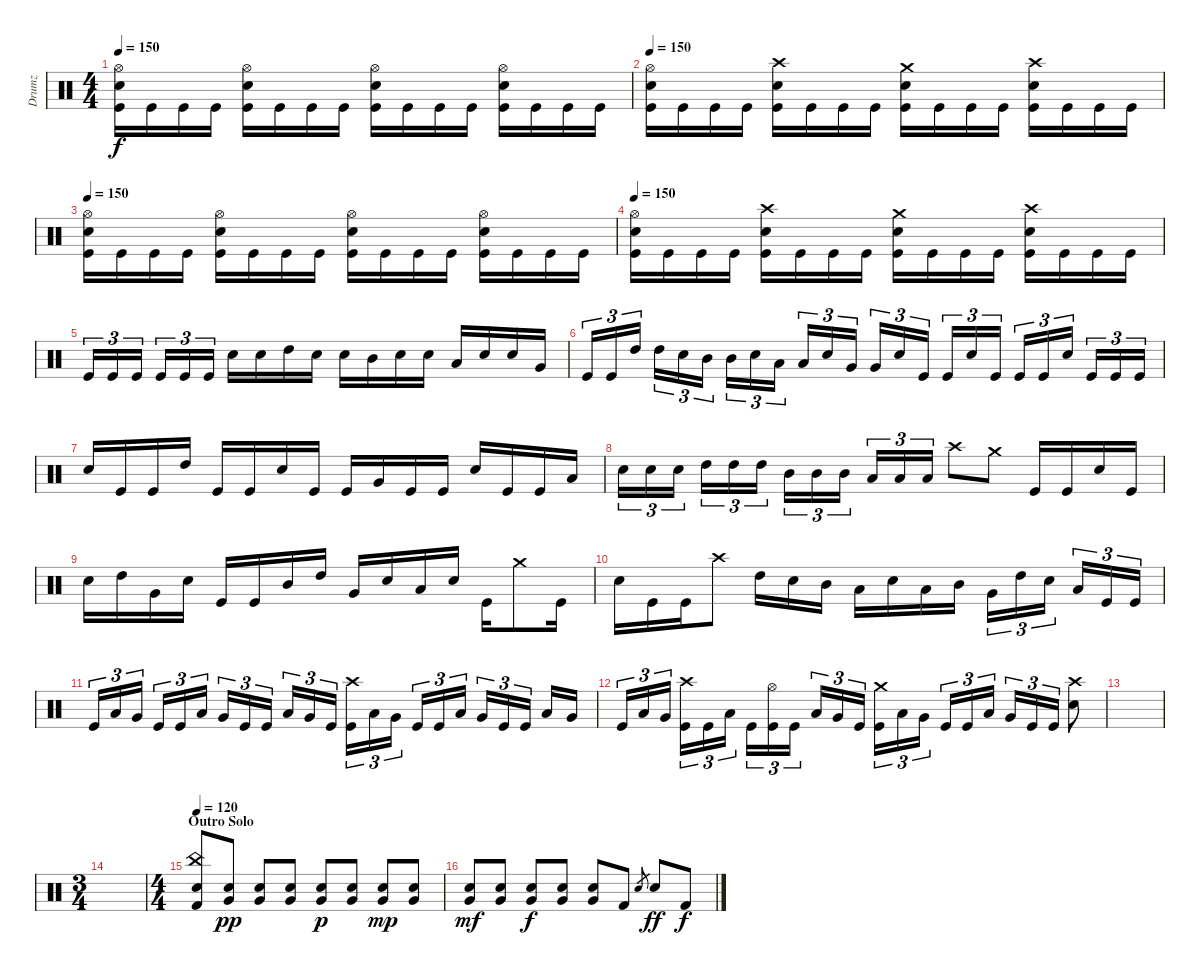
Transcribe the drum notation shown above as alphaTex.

\track ("Drumz" "Drumz") {instrument percussion}
\staff {score}
\articulation defaults
\ts (4 4)
\tempo 150
\clef neutral
\ks c
("Hi-Hat (open)" "Snare (hit) 2" "Kick (hit)").16{dy f} "Kick (hit)".16 "Kick (hit)".16 "Kick (hit)".16 ("Hi-Hat (open)" "Snare (hit) 2" "Kick (hit)").16 "Kick (hit)".16 "Kick (hit)".16 "Kick (hit)".16 ("Hi-Hat (open)" "Snare (hit) 2" "Kick (hit)").16 "Kick (hit)".16 "Kick (hit)".16 "Kick (hit)".16 ("Hi-Hat (open)" "Snare (hit) 2" "Kick (hit)").16 "Kick (hit)".16 "Kick (hit)".16 "Kick (hit)".16 |
\tempo 150
("Hi-Hat (open)" "Snare (hit) 2" "Kick (hit)").16 "Kick (hit)".16 "Kick (hit)".16 "Kick (hit)".16 ("Crash high (hit)" "Snare (hit) 2" "Kick (hit)").16 "Kick (hit)".16 "Kick (hit)".16 "Kick (hit)".16 ("Crash medium (hit)" "Snare (hit) 2" "Kick (hit)").16 "Kick (hit)".16 "Kick (hit)".16 "Kick (hit)".16 ("Crash high (hit)" "Snare (hit) 2" "Kick (hit)").16 "Kick (hit)".16 "Kick (hit)".16 "Kick (hit)".16 |
\tempo 150
("Hi-Hat (open)" "Snare (hit) 2" "Kick (hit)").16 "Kick (hit)".16 "Kick (hit)".16 "Kick (hit)".16 ("Hi-Hat (open)" "Snare (hit) 2" "Kick (hit)").16 "Kick (hit)".16 "Kick (hit)".16 "Kick (hit)".16 ("Hi-Hat (open)" "Snare (hit) 2" "Kick (hit)").16 "Kick (hit)".16 "Kick (hit)".16 "Kick (hit)".16 ("Hi-Hat (open)" "Snare (hit) 2" "Kick (hit)").16 "Kick (hit)".16 "Kick (hit)".16 "Kick (hit)".16 |
\tempo 150
("Hi-Hat (open)" "Snare (hit) 2" "Kick (hit)").16 "Kick (hit)".16 "Kick (hit)".16 "Kick (hit)".16 ("Crash high (hit)" "Snare (hit) 2" "Kick (hit)").16 "Kick (hit)".16 "Kick (hit)".16 "Kick (hit)".16 ("Crash medium (hit)" "Snare (hit) 2" "Kick (hit)").16 "Kick (hit)".16 "Kick (hit)".16 "Kick (hit)".16 ("Crash high (hit)" "Snare (hit) 2" "Kick (hit)").16 "Kick (hit)".16 "Kick (hit)".16 "Kick (hit)".16 |
"Kick (hit)".16{tu (3 2)} "Kick (hit)".16{tu (3 2)} "Kick (hit)".16{tu (3 2)} "Kick (hit)".16{tu (3 2)} "Kick (hit)".16{tu (3 2)} "Kick (hit)".16{tu (3 2)} "Snare (hit) 2".16 "Snare (hit) 2".16 "High Tom (hit)".16 "Snare (hit) 2".16 "Snare (hit) 2".16 "Mid Tom (hit)".16 "Snare (hit) 2".16 "Snare (hit) 2".16 "Low Tom (hit)".16 "Snare (hit) 2".16 "Snare (hit) 2".16 "Very Low Tom (hit)".16 |
"Kick (hit)".16{tu (3 2)} "Kick (hit)".16{tu (3 2)} "High Tom (hit)".16{tu (3 2)} "High Tom (hit)".16{tu (3 2)} "Snare (hit) 2".16{tu (3 2)} "Mid Tom (hit)".16{tu (3 2)} "Mid Tom (hit)".16{tu (3 2)} "Snare (hit) 2".16{tu (3 2)} "Low Tom (hit)".16{tu (3 2)} "Low Tom (hit)".16{tu (3 2)} "Snare (hit) 2".16{tu (3 2)} "Very Low Tom (hit)".16{tu (3 2)} "Very Low Tom (hit)".16{tu (3 2)} "Snare (hit) 2".16{tu (3 2)} "Kick (hit)".16{tu (3 2)} "Kick (hit)".16{tu (3 2)} "Snare (hit) 2".16{tu (3 2)} "Kick (hit)".16{tu (3 2)} "Kick (hit)".16{tu (3 2)} "Kick (hit)".16{tu (3 2)} "Snare (hit) 2".16{tu (3 2)} "Kick (hit)".16{tu (3 2)} "Kick (hit)".16{tu (3 2)} "Kick (hit)".16{tu (3 2)} |
"Snare (hit) 2".16 "Kick (hit)".16 "Kick (hit)".16 "High Tom (hit)".16 "Kick (hit)".16 "Kick (hit)".16 "Snare (hit) 2".16 "Kick (hit)".16 "Kick (hit)".16 "Very Low Tom (hit)".16 "Kick (hit)".16 "Kick (hit)".16 "Snare (hit) 2".16 "Kick (hit)".16 "Kick (hit)".16 "Low Tom (hit)".16 |
"Snare (hit) 2".16{tu (3 2)} "Snare (hit) 2".16{tu (3 2)} "Snare (hit) 2".16{tu (3 2)} "High Tom (hit)".16{tu (3 2)} "High Tom (hit)".16{tu (3 2)} "High Tom (hit)".16{tu (3 2)} "Mid Tom (hit)".16{tu (3 2)} "Mid Tom (hit)".16{tu (3 2)} "Mid Tom (hit)".16{tu (3 2)} "Low Tom (hit)".16{tu (3 2)} "Low Tom (hit)".16{tu (3 2)} "Low Tom (hit)".16{tu (3 2)} "Crash high (hit)".8 "Crash medium (hit)".8 "Kick (hit)".16 "Kick (hit)".16 "Snare (hit) 2".16 "Kick (hit)".16 |
"Snare (hit) 2".16 "High Tom (hit)".16 "Very Low Tom (hit)".16 "Snare (hit) 2".16 "Kick (hit)".16 "Kick (hit)".16 "Mid Tom (hit)".16 "High Tom (hit)".16 "Very Low Tom (hit)".16 "Snare (hit) 2".16 "Low Tom (hit)".16 "Snare (hit) 2".16 "Kick (hit)".16 "Crash medium (hit)".8 "Kick (hit)".16 |
"Snare (hit) 2".16 "Kick (hit)".16 "Kick (hit)".16 "Crash high (hit)".8 "High Tom (hit)".16 "Snare (hit) 2".16 "Mid Tom (hit)".16 "Low Tom (hit)".16 "Snare (hit) 2".16 "Low Tom (hit)".16 "Mid Tom (hit)".16 "Very Low Tom (hit)".16{tu (3 2)} "High Tom (hit)".16{tu (3 2)} "Snare (hit) 2".16{tu (3 2)} "Low Tom (hit)".16{tu (3 2)} "Kick (hit)".16{tu (3 2)} "Kick (hit)".16{tu (3 2)} |
"Kick (hit)".16{tu (3 2)} "Low Tom (hit)".16{tu (3 2)} "Very Low Tom (hit)".16{tu (3 2)} "Kick (hit)".16{tu (3 2)} "Kick (hit)".16{tu (3 2)} "Low Tom (hit)".16{tu (3 2)} "Very Low Tom (hit)".16{tu (3 2)} "Kick (hit)".16{tu (3 2)} "Kick (hit)".16{tu (3 2)} "Low Tom (hit)".16{tu (3 2)} "Very Low Tom (hit)".16{tu (3 2)} "Kick (hit)".16{tu (3 2)} ("Crash high (hit)" "Kick (hit)").16{tu (3 2)} "Low Tom (hit)".16{tu (3 2)} "Very Low Tom (hit)".16{tu (3 2)} "Kick (hit)".16{tu (3 2)} "Kick (hit)".16{tu (3 2)} "Low Tom (hit)".16{tu (3 2)} "Very Low Tom (hit)".16{tu (3 2)} "Kick (hit)".16{tu (3 2)} "Kick (hit)".16{tu (3 2)} "Low Tom (hit)".16 "Very Low Tom (hit)".16 |
"Kick (hit)".16{tu (3 2)} "Low Tom (hit)".16{tu (3 2)} "Very Low Tom (hit)".16{tu (3 2)} ("Crash high (hit)" "Kick (hit)").16{tu (3 2)} "Kick (hit)".16{tu (3 2)} "Low Tom (hit)".16{tu (3 2)} "Kick (hit)".16{tu (3 2)} ("Hi-Hat (open)" "Kick (hit)").16{tu (3 2)} "Kick (hit)".16{tu (3 2)} "Low Tom (hit)".16{tu (3 2)} "Very Low Tom (hit)".16{tu (3 2)} "Kick (hit)".16{tu (3 2)} ("Crash medium (hit)" "Kick (hit)").16{tu (3 2)} "Low Tom (hit)".16{tu (3 2)} "Very Low Tom (hit)".16{tu (3 2)} "Kick (hit)".16{tu (3 2)} "Kick (hit)".16{tu (3 2)} "Low Tom (hit)".16{tu (3 2)} "Very Low Tom (hit)".16{tu (3 2)} "Kick (hit)".16{tu (3 2)} "Kick (hit)".16{tu (3 2)} ("Crash high (hit)" "Snare (hit) 2").8 |
|
\ts (3 4)
|
\ts (4 4)
\section ("" "Outro Solo")
\tempo 120
("China (hit)" "Snare (hit) 2" "Kick (hit) 2").8 ("Very Low Tom (hit)" "Snare (hit) 2").8{dy pp} ("Very Low Tom (hit)" "Snare (hit) 2").8 ("Very Low Tom (hit)" "Snare (hit) 2").8 ("Very Low Tom (hit)" "Snare (hit) 2").8{dy p} ("Very Low Tom (hit)" "Snare (hit) 2").8 ("Very Low Tom (hit)" "Snare (hit) 2").8{dy mp} ("Very Low Tom (hit)" "Snare (hit) 2").8 |
("Very Low Tom (hit)" "Snare (hit) 2").8{dy mf} ("Very Low Tom (hit)" "Snare (hit) 2").8 ("Very Low Tom (hit)" "Snare (hit) 2").8{dy f} ("Very Low Tom (hit)" "Snare (hit) 2").8 ("Very Low Tom (hit)" "Snare (hit) 2").8 "Kick (hit) 2".8 "Snare (hit) 2".8{gr} "Snare (hit) 2".8{dy ff} "Kick (hit) 2".8{dy f}
